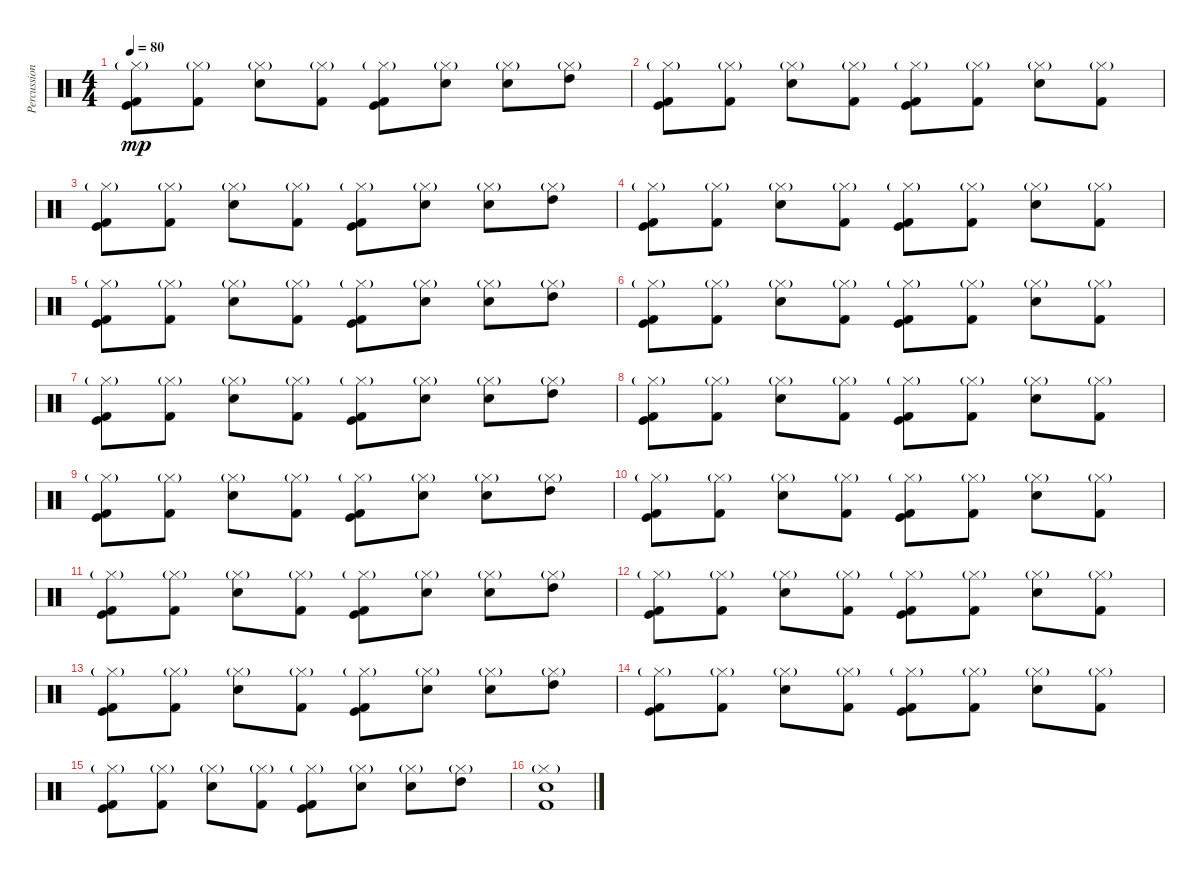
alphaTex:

\track ("Percussion" "Percussion") {instrument percussion}
\staff {score}
\articulation defaults
\ts (4 4)
\tempo 80
\clef neutral
\ks c
("Hi-Hat (closed)"{g} "Kick (hit) 2" "Kick (hit)").8{dy mp} ("Hi-Hat (closed)"{g} "Kick (hit) 2").8 ("Hi-Hat (closed)"{g} "Electric Snare (hit)").8 ("Hi-Hat (closed)"{g} "Kick (hit) 2").8 ("Hi-Hat (closed)"{g} "Kick (hit) 2" "Kick (hit)").8 ("Hi-Hat (closed)"{g} "Electric Snare (hit)").8 ("Hi-Hat (closed)"{g} "Snare (hit) 2").8 ("Hi-Hat (closed)"{g} "High Tom (hit)").8 |
("Hi-Hat (closed)"{g} "Kick (hit) 2" "Kick (hit)").8 ("Hi-Hat (closed)"{g} "Kick (hit) 2").8 ("Hi-Hat (closed)"{g} "Electric Snare (hit)").8 ("Hi-Hat (closed)"{g} "Kick (hit) 2").8 ("Hi-Hat (closed)"{g} "Kick (hit) 2" "Kick (hit)").8 ("Hi-Hat (closed)"{g} "Kick (hit) 2").8 ("Hi-Hat (closed)"{g} "Electric Snare (hit)").8 ("Hi-Hat (closed)"{g} "Kick (hit) 2").8 |
("Hi-Hat (closed)"{g} "Kick (hit) 2" "Kick (hit)").8 ("Hi-Hat (closed)"{g} "Kick (hit) 2").8 ("Hi-Hat (closed)"{g} "Electric Snare (hit)").8 ("Hi-Hat (closed)"{g} "Kick (hit) 2").8 ("Hi-Hat (closed)"{g} "Kick (hit) 2" "Kick (hit)").8 ("Hi-Hat (closed)"{g} "Electric Snare (hit)").8 ("Hi-Hat (closed)"{g} "Snare (hit) 2").8 ("Hi-Hat (closed)"{g} "High Tom (hit)").8 |
("Hi-Hat (closed)"{g} "Kick (hit) 2" "Kick (hit)").8 ("Hi-Hat (closed)"{g} "Kick (hit) 2").8 ("Hi-Hat (closed)"{g} "Electric Snare (hit)").8 ("Hi-Hat (closed)"{g} "Kick (hit) 2").8 ("Hi-Hat (closed)"{g} "Kick (hit) 2" "Kick (hit)").8 ("Hi-Hat (closed)"{g} "Kick (hit) 2").8 ("Hi-Hat (closed)"{g} "Electric Snare (hit)").8 ("Hi-Hat (closed)"{g} "Kick (hit) 2").8 |
("Hi-Hat (closed)"{g} "Kick (hit) 2" "Kick (hit)").8 ("Hi-Hat (closed)"{g} "Kick (hit) 2").8 ("Hi-Hat (closed)"{g} "Electric Snare (hit)").8 ("Hi-Hat (closed)"{g} "Kick (hit) 2").8 ("Hi-Hat (closed)"{g} "Kick (hit) 2" "Kick (hit)").8 ("Hi-Hat (closed)"{g} "Electric Snare (hit)").8 ("Hi-Hat (closed)"{g} "Snare (hit) 2").8 ("Hi-Hat (closed)"{g} "High Tom (hit)").8 |
("Hi-Hat (closed)"{g} "Kick (hit) 2" "Kick (hit)").8 ("Hi-Hat (closed)"{g} "Kick (hit) 2").8 ("Hi-Hat (closed)"{g} "Electric Snare (hit)").8 ("Hi-Hat (closed)"{g} "Kick (hit) 2").8 ("Hi-Hat (closed)"{g} "Kick (hit) 2" "Kick (hit)").8 ("Hi-Hat (closed)"{g} "Kick (hit) 2").8 ("Hi-Hat (closed)"{g} "Electric Snare (hit)").8 ("Hi-Hat (closed)"{g} "Kick (hit) 2").8 |
("Hi-Hat (closed)"{g} "Kick (hit) 2" "Kick (hit)").8 ("Hi-Hat (closed)"{g} "Kick (hit) 2").8 ("Hi-Hat (closed)"{g} "Electric Snare (hit)").8 ("Hi-Hat (closed)"{g} "Kick (hit) 2").8 ("Hi-Hat (closed)"{g} "Kick (hit) 2" "Kick (hit)").8 ("Hi-Hat (closed)"{g} "Electric Snare (hit)").8 ("Hi-Hat (closed)"{g} "Snare (hit) 2").8 ("Hi-Hat (closed)"{g} "High Tom (hit)").8 |
("Hi-Hat (closed)"{g} "Kick (hit) 2" "Kick (hit)").8 ("Hi-Hat (closed)"{g} "Kick (hit) 2").8 ("Hi-Hat (closed)"{g} "Electric Snare (hit)").8 ("Hi-Hat (closed)"{g} "Kick (hit) 2").8 ("Hi-Hat (closed)"{g} "Kick (hit) 2" "Kick (hit)").8 ("Hi-Hat (closed)"{g} "Kick (hit) 2").8 ("Hi-Hat (closed)"{g} "Electric Snare (hit)").8 ("Hi-Hat (closed)"{g} "Kick (hit) 2").8 |
("Hi-Hat (closed)"{g} "Kick (hit) 2" "Kick (hit)").8 ("Hi-Hat (closed)"{g} "Kick (hit) 2").8 ("Hi-Hat (closed)"{g} "Electric Snare (hit)").8 ("Hi-Hat (closed)"{g} "Kick (hit) 2").8 ("Hi-Hat (closed)"{g} "Kick (hit) 2" "Kick (hit)").8 ("Hi-Hat (closed)"{g} "Electric Snare (hit)").8 ("Hi-Hat (closed)"{g} "Snare (hit) 2").8 ("Hi-Hat (closed)"{g} "High Tom (hit)").8 |
("Hi-Hat (closed)"{g} "Kick (hit) 2" "Kick (hit)").8 ("Hi-Hat (closed)"{g} "Kick (hit) 2").8 ("Hi-Hat (closed)"{g} "Electric Snare (hit)").8 ("Hi-Hat (closed)"{g} "Kick (hit) 2").8 ("Hi-Hat (closed)"{g} "Kick (hit) 2" "Kick (hit)").8 ("Hi-Hat (closed)"{g} "Kick (hit) 2").8 ("Hi-Hat (closed)"{g} "Electric Snare (hit)").8 ("Hi-Hat (closed)"{g} "Kick (hit) 2").8 |
("Hi-Hat (closed)"{g} "Kick (hit) 2" "Kick (hit)").8 ("Hi-Hat (closed)"{g} "Kick (hit) 2").8 ("Hi-Hat (closed)"{g} "Electric Snare (hit)").8 ("Hi-Hat (closed)"{g} "Kick (hit) 2").8 ("Hi-Hat (closed)"{g} "Kick (hit) 2" "Kick (hit)").8 ("Hi-Hat (closed)"{g} "Electric Snare (hit)").8 ("Hi-Hat (closed)"{g} "Snare (hit) 2").8 ("Hi-Hat (closed)"{g} "High Tom (hit)").8 |
("Hi-Hat (closed)"{g} "Kick (hit) 2" "Kick (hit)").8 ("Hi-Hat (closed)"{g} "Kick (hit) 2").8 ("Hi-Hat (closed)"{g} "Electric Snare (hit)").8 ("Hi-Hat (closed)"{g} "Kick (hit) 2").8 ("Hi-Hat (closed)"{g} "Kick (hit) 2" "Kick (hit)").8 ("Hi-Hat (closed)"{g} "Kick (hit) 2").8 ("Hi-Hat (closed)"{g} "Electric Snare (hit)").8 ("Hi-Hat (closed)"{g} "Kick (hit) 2").8 |
("Hi-Hat (closed)"{g} "Kick (hit) 2" "Kick (hit)").8 ("Hi-Hat (closed)"{g} "Kick (hit) 2").8 ("Hi-Hat (closed)"{g} "Electric Snare (hit)").8 ("Hi-Hat (closed)"{g} "Kick (hit) 2").8 ("Hi-Hat (closed)"{g} "Kick (hit) 2" "Kick (hit)").8 ("Hi-Hat (closed)"{g} "Electric Snare (hit)").8 ("Hi-Hat (closed)"{g} "Snare (hit) 2").8 ("Hi-Hat (closed)"{g} "High Tom (hit)").8 |
("Hi-Hat (closed)"{g} "Kick (hit) 2" "Kick (hit)").8 ("Hi-Hat (closed)"{g} "Kick (hit) 2").8 ("Hi-Hat (closed)"{g} "Electric Snare (hit)").8 ("Hi-Hat (closed)"{g} "Kick (hit) 2").8 ("Hi-Hat (closed)"{g} "Kick (hit) 2" "Kick (hit)").8 ("Hi-Hat (closed)"{g} "Kick (hit) 2").8 ("Hi-Hat (closed)"{g} "Electric Snare (hit)").8 ("Hi-Hat (closed)"{g} "Kick (hit) 2").8 |
("Hi-Hat (closed)"{g} "Kick (hit) 2" "Kick (hit)").8 ("Hi-Hat (closed)"{g} "Kick (hit) 2").8 ("Hi-Hat (closed)"{g} "Electric Snare (hit)").8 ("Hi-Hat (closed)"{g} "Kick (hit) 2").8 ("Hi-Hat (closed)"{g} "Kick (hit) 2" "Kick (hit)").8 ("Hi-Hat (closed)"{g} "Electric Snare (hit)").8 ("Hi-Hat (closed)"{g} "Snare (hit) 2").8 ("Hi-Hat (closed)"{g} "High Tom (hit)").8 |
("Hi-Hat (closed)"{g} "Electric Snare (hit)" "Kick (hit) 2").1
